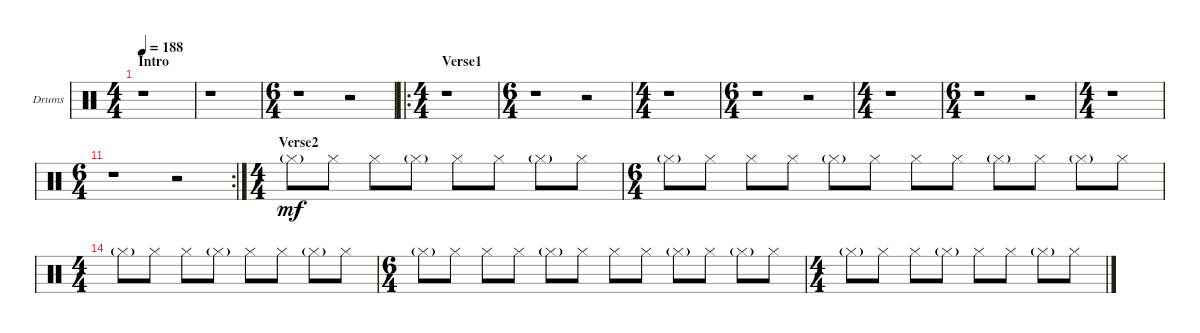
\bracketExtendMode nobrackets
\firstSystemTrackNameOrientation horizontal
\otherSystemsTrackNameOrientation horizontal
\defaultBarNumberDisplay FirstOfSystem
\track ("Drumkit" "Drums") {instrument percussion}
\staff {score}
\articulation defaults
\ts (4 4)
\section ("" "Intro")
\tempo 188
\clef neutral
\ks c
r.1{dy mf} |
r.1 |
\ts (6 4)
r.1 r.2 |
\ro
\ts (4 4)
\section ("" "Verse1")
r.1 |
\ts (6 4)
r.1 r.2 |
\ts (4 4)
r.1 |
\ts (6 4)
r.1 r.2 |
\ts (4 4)
r.1 |
\ts (6 4)
r.1 r.2 |
\ts (4 4)
r.1 |
\rc 2
\ts (6 4)
r.1 r.2 |
\ts (4 4)
\section ("" "Verse2")
"Hi-Hat (closed)"{g}.8 "Hi-Hat (closed)".8 "Hi-Hat (closed)".8 "Hi-Hat (closed)"{g}.8 "Hi-Hat (closed)".8 "Hi-Hat (closed)".8 "Hi-Hat (closed)"{g}.8 "Hi-Hat (closed)".8 |
\ts (6 4)
"Hi-Hat (closed)"{g}.8 "Hi-Hat (closed)".8 "Hi-Hat (closed)".8 "Hi-Hat (closed)".8 "Hi-Hat (closed)"{g}.8 "Hi-Hat (closed)".8 "Hi-Hat (closed)".8 "Hi-Hat (closed)".8 "Hi-Hat (closed)"{g}.8 "Hi-Hat (closed)".8 "Hi-Hat (closed)"{g}.8 "Hi-Hat (closed)".8 |
\ts (4 4)
"Hi-Hat (closed)"{g}.8 "Hi-Hat (closed)".8 "Hi-Hat (closed)".8 "Hi-Hat (closed)"{g}.8 "Hi-Hat (closed)".8 "Hi-Hat (closed)".8 "Hi-Hat (closed)"{g}.8 "Hi-Hat (closed)".8 |
\ts (6 4)
"Hi-Hat (closed)"{g}.8 "Hi-Hat (closed)".8 "Hi-Hat (closed)".8 "Hi-Hat (closed)".8 "Hi-Hat (closed)"{g}.8 "Hi-Hat (closed)".8 "Hi-Hat (closed)".8 "Hi-Hat (closed)".8 "Hi-Hat (closed)"{g}.8 "Hi-Hat (closed)".8 "Hi-Hat (closed)"{g}.8 "Hi-Hat (closed)".8 |
\ts (4 4)
"Hi-Hat (closed)"{g}.8 "Hi-Hat (closed)".8 "Hi-Hat (closed)".8 "Hi-Hat (closed)"{g}.8 "Hi-Hat (closed)".8 "Hi-Hat (closed)".8 "Hi-Hat (closed)"{g}.8 "Hi-Hat (closed)".8
